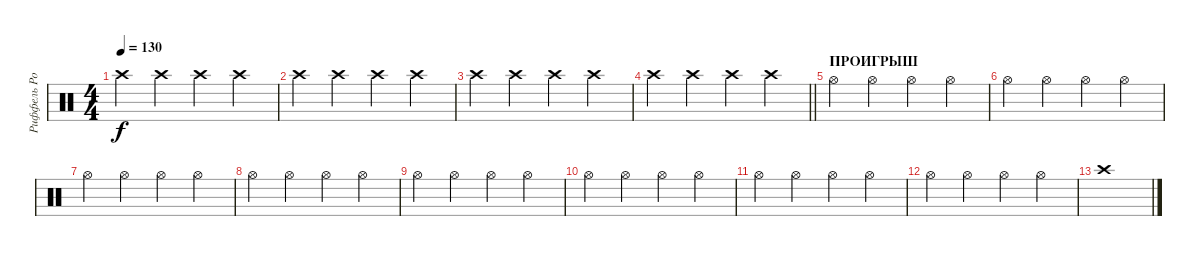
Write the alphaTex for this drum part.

\track ("Риффель Роман(хэты)" "Риффель Ро") {instrument percussion}
\staff {score}
\articulation defaults
\ts (4 4)
\tempo 130
\clef neutral
\ks c "Crash high (hit)".4{dy f} "Crash high (hit)".4 "Crash high (hit)".4 "Crash high (hit)".4
|
"Crash high (hit)".4 "Crash high (hit)".4 "Crash high (hit)".4 "Crash high (hit)".4 |
"Crash high (hit)".4 "Crash high (hit)".4 "Crash high (hit)".4 "Crash high (hit)".4 |
\barLineRight lightlight "Crash high (hit)".4 "Crash high (hit)".4 "Crash high (hit)".4 "Crash high (hit)".4
|
\section ("" "ПРОИГРЫШ")
"Hi-Hat (open)".4 "Hi-Hat (open)".4 "Hi-Hat (open)".4 "Hi-Hat (open)".4 |
"Hi-Hat (open)".4 "Hi-Hat (open)".4 "Hi-Hat (open)".4 "Hi-Hat (open)".4 |
"Hi-Hat (open)".4 "Hi-Hat (open)".4 "Hi-Hat (open)".4 "Hi-Hat (open)".4 |
"Hi-Hat (open)".4 "Hi-Hat (open)".4 "Hi-Hat (open)".4 "Hi-Hat (open)".4 |
"Hi-Hat (open)".4 "Hi-Hat (open)".4 "Hi-Hat (open)".4 "Hi-Hat (open)".4 |
"Hi-Hat (open)".4 "Hi-Hat (open)".4 "Hi-Hat (open)".4 "Hi-Hat (open)".4 |
"Hi-Hat (open)".4 "Hi-Hat (open)".4 "Hi-Hat (open)".4 "Hi-Hat (open)".4 |
"Hi-Hat (open)".4 "Hi-Hat (open)".4 "Hi-Hat (open)".4 "Hi-Hat (open)".4 |
"Crash high (hit)".1
